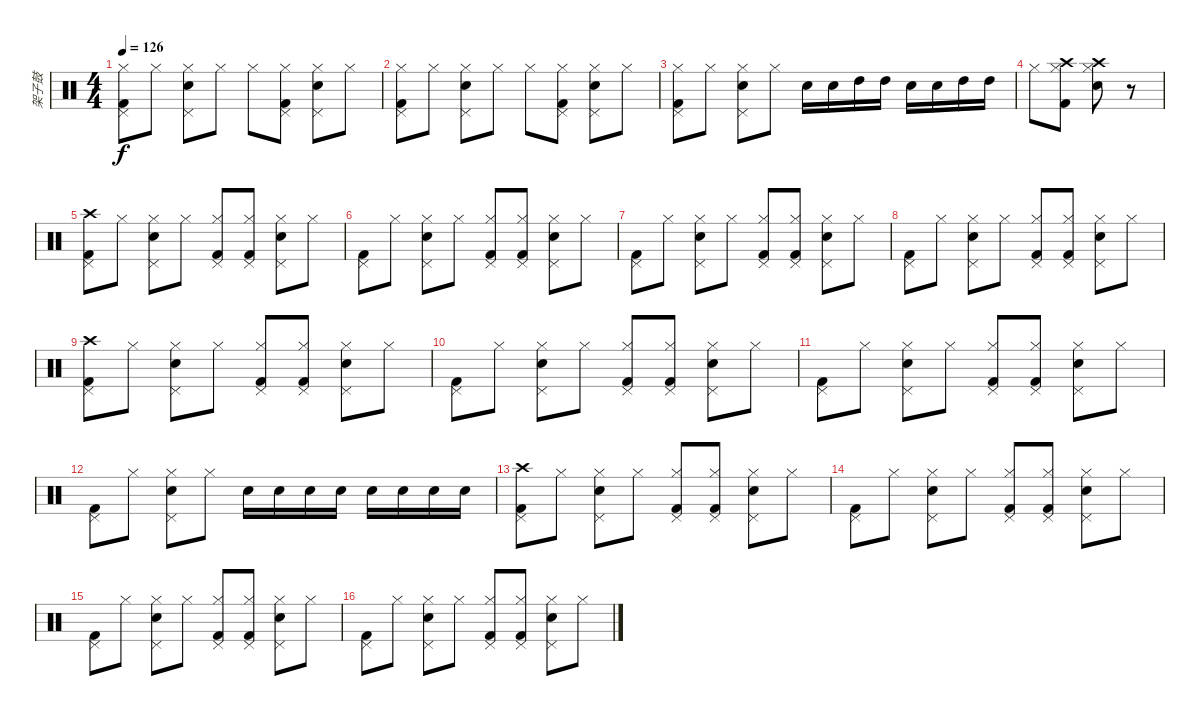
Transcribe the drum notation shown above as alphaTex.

\track ("架子鼓" "架子鼓") {instrument percussion}
\staff {score}
\articulation defaults
\ts (4 4)
\tempo 126
\clef neutral
\ks c
("Pedal Hi-Hat (hit)" "Hi-Hat (closed)" "Kick (hit) 2").8{dy f} "Hi-Hat (closed)".8 ("Pedal Hi-Hat (hit)" "Hi-Hat (closed)" "Snare (hit) 2").8 "Hi-Hat (closed)".8 "Hi-Hat (closed)".8 ("Pedal Hi-Hat (hit)" "Hi-Hat (closed)" "Kick (hit) 2").8 ("Pedal Hi-Hat (hit)" "Hi-Hat (closed)" "Snare (hit) 2").8 "Hi-Hat (closed)".8 |
("Pedal Hi-Hat (hit)" "Hi-Hat (closed)" "Kick (hit) 2").8 "Hi-Hat (closed)".8 ("Pedal Hi-Hat (hit)" "Hi-Hat (closed)" "Snare (hit) 2").8 "Hi-Hat (closed)".8 "Hi-Hat (closed)".8 ("Pedal Hi-Hat (hit)" "Hi-Hat (closed)" "Kick (hit) 2").8 ("Pedal Hi-Hat (hit)" "Hi-Hat (closed)" "Snare (hit) 2").8 "Hi-Hat (closed)".8 |
("Pedal Hi-Hat (hit)" "Hi-Hat (closed)" "Kick (hit) 2").8 "Hi-Hat (closed)".8 ("Pedal Hi-Hat (hit)" "Hi-Hat (closed)" "Snare (hit) 2").8 "Hi-Hat (closed)".8 "Snare (hit) 2".16 "Snare (hit) 2".16 "High Tom (hit)".16 "High Tom (hit)".16 "Snare (hit) 2".16 "Snare (hit) 2".16 "High Tom (hit)".16 "High Tom (hit)".16 |
"Hi-Hat (closed)".8 ("Crash high (hit)" "Hi-Hat (closed)" "Kick (hit) 2").8 ("Crash high (hit)" "Hi-Hat (closed)" "Snare (hit) 2").8 r.8 |
("Crash high (hit)" "Pedal Hi-Hat (hit)" "Kick (hit) 2").8 "Hi-Hat (closed)".8 ("Pedal Hi-Hat (hit)" "Hi-Hat (closed)" "Snare (hit) 2").8 "Hi-Hat (closed)".8 ("Pedal Hi-Hat (hit)" "Hi-Hat (closed)" "Kick (hit) 2").8 ("Pedal Hi-Hat (hit)" "Hi-Hat (closed)" "Kick (hit) 2").8 ("Pedal Hi-Hat (hit)" "Hi-Hat (closed)" "Snare (hit) 2").8 "Hi-Hat (closed)".8 |
("Pedal Hi-Hat (hit)" "Kick (hit) 2").8 "Hi-Hat (closed)".8 ("Pedal Hi-Hat (hit)" "Hi-Hat (closed)" "Snare (hit) 2").8 "Hi-Hat (closed)".8 ("Pedal Hi-Hat (hit)" "Hi-Hat (closed)" "Kick (hit) 2").8 ("Pedal Hi-Hat (hit)" "Hi-Hat (closed)" "Kick (hit) 2").8 ("Pedal Hi-Hat (hit)" "Hi-Hat (closed)" "Snare (hit) 2").8 "Hi-Hat (closed)".8 |
("Pedal Hi-Hat (hit)" "Kick (hit) 2").8 "Hi-Hat (closed)".8 ("Pedal Hi-Hat (hit)" "Hi-Hat (closed)" "Snare (hit) 2").8 "Hi-Hat (closed)".8 ("Pedal Hi-Hat (hit)" "Hi-Hat (closed)" "Kick (hit) 2").8 ("Pedal Hi-Hat (hit)" "Hi-Hat (closed)" "Kick (hit) 2").8 ("Pedal Hi-Hat (hit)" "Hi-Hat (closed)" "Snare (hit) 2").8 "Hi-Hat (closed)".8 |
("Pedal Hi-Hat (hit)" "Kick (hit) 2").8 "Hi-Hat (closed)".8 ("Pedal Hi-Hat (hit)" "Hi-Hat (closed)" "Snare (hit) 2").8 "Hi-Hat (closed)".8 ("Pedal Hi-Hat (hit)" "Hi-Hat (closed)" "Kick (hit) 2").8 ("Pedal Hi-Hat (hit)" "Hi-Hat (closed)" "Kick (hit) 2").8 ("Pedal Hi-Hat (hit)" "Hi-Hat (closed)" "Snare (hit) 2").8 "Hi-Hat (closed)".8 |
("Crash high (hit)" "Pedal Hi-Hat (hit)" "Kick (hit) 2").8 "Hi-Hat (closed)".8 ("Pedal Hi-Hat (hit)" "Hi-Hat (closed)" "Snare (hit) 2").8 "Hi-Hat (closed)".8 ("Pedal Hi-Hat (hit)" "Hi-Hat (closed)" "Kick (hit) 2").8 ("Pedal Hi-Hat (hit)" "Hi-Hat (closed)" "Kick (hit) 2").8 ("Pedal Hi-Hat (hit)" "Hi-Hat (closed)" "Snare (hit) 2").8 "Hi-Hat (closed)".8 |
("Pedal Hi-Hat (hit)" "Kick (hit) 2").8 "Hi-Hat (closed)".8 ("Pedal Hi-Hat (hit)" "Hi-Hat (closed)" "Snare (hit) 2").8 "Hi-Hat (closed)".8 ("Pedal Hi-Hat (hit)" "Hi-Hat (closed)" "Kick (hit) 2").8 ("Pedal Hi-Hat (hit)" "Hi-Hat (closed)" "Kick (hit) 2").8 ("Pedal Hi-Hat (hit)" "Hi-Hat (closed)" "Snare (hit) 2").8 "Hi-Hat (closed)".8 |
("Pedal Hi-Hat (hit)" "Kick (hit) 2").8 "Hi-Hat (closed)".8 ("Pedal Hi-Hat (hit)" "Hi-Hat (closed)" "Snare (hit) 2").8 "Hi-Hat (closed)".8 ("Pedal Hi-Hat (hit)" "Hi-Hat (closed)" "Kick (hit) 2").8 ("Pedal Hi-Hat (hit)" "Hi-Hat (closed)" "Kick (hit) 2").8 ("Pedal Hi-Hat (hit)" "Hi-Hat (closed)" "Snare (hit) 2").8 "Hi-Hat (closed)".8 |
("Pedal Hi-Hat (hit)" "Kick (hit) 2").8 "Hi-Hat (closed)".8 ("Pedal Hi-Hat (hit)" "Hi-Hat (closed)" "Snare (hit) 2").8 "Hi-Hat (closed)".8 "Snare (hit) 2".16 "Snare (hit) 2".16 "Snare (hit) 2".16 "Snare (hit) 2".16 "Snare (hit) 2".16 "Snare (hit) 2".16 "Snare (hit) 2".16 "Snare (hit) 2".16 |
("Crash high (hit)" "Pedal Hi-Hat (hit)" "Kick (hit) 2").8 "Hi-Hat (closed)".8 ("Pedal Hi-Hat (hit)" "Hi-Hat (closed)" "Snare (hit) 2").8 "Hi-Hat (closed)".8 ("Pedal Hi-Hat (hit)" "Hi-Hat (closed)" "Kick (hit) 2").8 ("Pedal Hi-Hat (hit)" "Hi-Hat (closed)" "Kick (hit) 2").8 ("Pedal Hi-Hat (hit)" "Hi-Hat (closed)" "Snare (hit) 2").8 "Hi-Hat (closed)".8 |
("Pedal Hi-Hat (hit)" "Kick (hit) 2").8 "Hi-Hat (closed)".8 ("Pedal Hi-Hat (hit)" "Hi-Hat (closed)" "Snare (hit) 2").8 "Hi-Hat (closed)".8 ("Pedal Hi-Hat (hit)" "Hi-Hat (closed)" "Kick (hit) 2").8 ("Pedal Hi-Hat (hit)" "Hi-Hat (closed)" "Kick (hit) 2").8 ("Pedal Hi-Hat (hit)" "Hi-Hat (closed)" "Snare (hit) 2").8 "Hi-Hat (closed)".8 |
("Pedal Hi-Hat (hit)" "Kick (hit) 2").8 "Hi-Hat (closed)".8 ("Pedal Hi-Hat (hit)" "Hi-Hat (closed)" "Snare (hit) 2").8 "Hi-Hat (closed)".8 ("Pedal Hi-Hat (hit)" "Hi-Hat (closed)" "Kick (hit) 2").8 ("Pedal Hi-Hat (hit)" "Hi-Hat (closed)" "Kick (hit) 2").8 ("Pedal Hi-Hat (hit)" "Hi-Hat (closed)" "Snare (hit) 2").8 "Hi-Hat (closed)".8 |
("Pedal Hi-Hat (hit)" "Kick (hit) 2").8 "Hi-Hat (closed)".8 ("Pedal Hi-Hat (hit)" "Hi-Hat (closed)" "Snare (hit) 2").8 "Hi-Hat (closed)".8 ("Pedal Hi-Hat (hit)" "Hi-Hat (closed)" "Kick (hit) 2").8 ("Pedal Hi-Hat (hit)" "Hi-Hat (closed)" "Kick (hit) 2").8 ("Pedal Hi-Hat (hit)" "Hi-Hat (closed)" "Snare (hit) 2").8 "Hi-Hat (closed)".8
